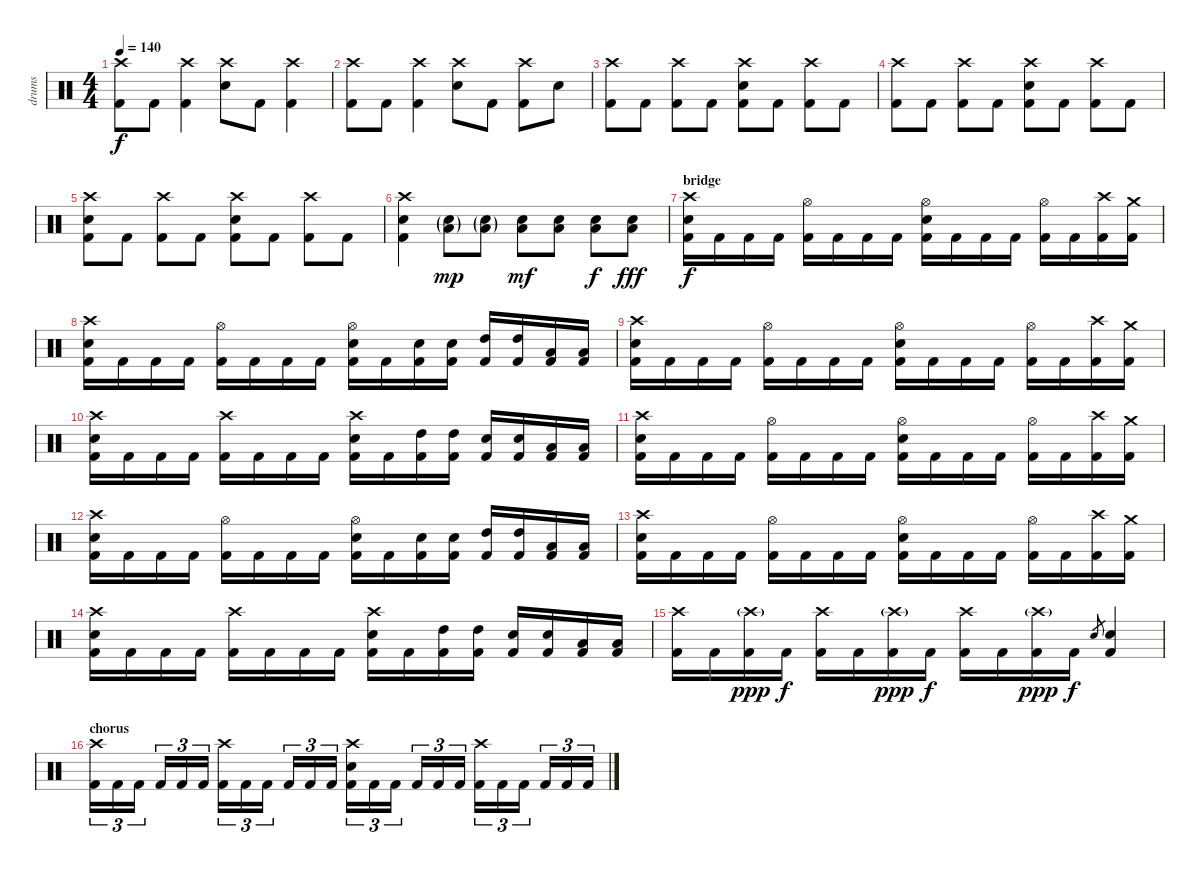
\track ("drums" "drums") {instrument percussion}
\staff {score}
\articulation defaults
\ts (4 4)
\tempo 140
\clef neutral
\ks c
("Crash high (hit)" "Kick (hit) 2").8{dy f} "Kick (hit) 2".8 ("Crash high (hit)" "Kick (hit) 2").4 ("Crash high (hit)" "Electric Snare (hit)").8 "Kick (hit) 2".8 ("Crash high (hit)" "Kick (hit) 2").4 |
("Crash high (hit)" "Kick (hit) 2").8 "Kick (hit) 2".8 ("Crash high (hit)" "Kick (hit) 2").4 ("Crash high (hit)" "Electric Snare (hit)").8 "Kick (hit) 2".8 ("Crash high (hit)" "Kick (hit) 2").8 "Electric Snare (hit)".8 |
("Crash high (hit)" "Kick (hit) 2").8 "Kick (hit) 2".8 ("Crash high (hit)" "Kick (hit) 2").8 "Kick (hit) 2".8 ("Crash high (hit)" "Electric Snare (hit)" "Kick (hit) 2").8 "Kick (hit) 2".8 ("Crash high (hit)" "Kick (hit) 2").8 "Kick (hit) 2".8 |
("Crash high (hit)" "Kick (hit) 2").8 "Kick (hit) 2".8 ("Crash high (hit)" "Kick (hit) 2").8 "Kick (hit) 2".8 ("Crash high (hit)" "Electric Snare (hit)" "Kick (hit) 2").8 "Kick (hit) 2".8 ("Crash high (hit)" "Kick (hit) 2").8 "Kick (hit) 2".8 |
("Crash high (hit)" "Electric Snare (hit)" "Kick (hit) 2").8 "Kick (hit) 2".8 ("Crash high (hit)" "Kick (hit) 2").8 "Kick (hit) 2".8 ("Crash high (hit)" "Electric Snare (hit)" "Kick (hit) 2").8 "Kick (hit) 2".8 ("Crash high (hit)" "Kick (hit) 2").8 "Kick (hit) 2".8 |
("Crash high (hit)" "Electric Snare (hit)" "Kick (hit) 2").4 ("Electric Snare (hit)"{g} "Low Floor Tom (hit)"{g}).8{dy mp} ("Electric Snare (hit)"{g} "Low Floor Tom (hit)"{g}).8 ("Electric Snare (hit)" "Low Floor Tom (hit)").8{dy mf} ("Electric Snare (hit)" "Low Floor Tom (hit)").8 ("Electric Snare (hit)" "Low Floor Tom (hit)").8{dy f} ("Electric Snare (hit)" "Low Floor Tom (hit)").8{dy fff} |
\section ("" "bridge")
("Crash high (hit)" "Electric Snare (hit)" "Kick (hit) 2").16{dy f} "Kick (hit) 2".16 "Kick (hit) 2".16 "Kick (hit) 2".16 ("Hi-Hat (open)" "Kick (hit) 2").16 "Kick (hit) 2".16 "Kick (hit) 2".16 "Kick (hit) 2".16 ("Hi-Hat (open)" "Electric Snare (hit)" "Kick (hit) 2").16 "Kick (hit) 2".16 "Kick (hit) 2".16 "Kick (hit) 2".16 ("Hi-Hat (open)" "Kick (hit) 2").16 "Kick (hit) 2".16 ("Crash high (hit)" "Kick (hit) 2").16 ("Crash medium (hit)" "Kick (hit) 2").16 |
("Crash high (hit)" "Electric Snare (hit)" "Kick (hit) 2").16 "Kick (hit) 2".16 "Kick (hit) 2".16 "Kick (hit) 2".16 ("Hi-Hat (open)" "Kick (hit) 2").16 "Kick (hit) 2".16 "Kick (hit) 2".16 "Kick (hit) 2".16 ("Hi-Hat (open)" "Electric Snare (hit)" "Kick (hit) 2").16 "Kick (hit) 2".16 ("Electric Snare (hit)" "Kick (hit) 2").16 ("Electric Snare (hit)" "Kick (hit) 2").16 ("High Tom (hit)" "Kick (hit) 2").16 ("High Tom (hit)" "Kick (hit) 2").16 ("Low Tom (hit)" "Kick (hit) 2").16 ("Low Tom (hit)" "Kick (hit) 2").16 |
("Crash high (hit)" "Electric Snare (hit)" "Kick (hit) 2").16 "Kick (hit) 2".16 "Kick (hit) 2".16 "Kick (hit) 2".16 ("Hi-Hat (open)" "Kick (hit) 2").16 "Kick (hit) 2".16 "Kick (hit) 2".16 "Kick (hit) 2".16 ("Hi-Hat (open)" "Electric Snare (hit)" "Kick (hit) 2").16 "Kick (hit) 2".16 "Kick (hit) 2".16 "Kick (hit) 2".16 ("Hi-Hat (open)" "Kick (hit) 2").16 "Kick (hit) 2".16 ("Crash high (hit)" "Kick (hit) 2").16 ("Crash medium (hit)" "Kick (hit) 2").16 |
("Crash high (hit)" "Electric Snare (hit)" "Kick (hit) 2").16 "Kick (hit) 2".16 "Kick (hit) 2".16 "Kick (hit) 2".16 ("Crash high (hit)" "Kick (hit) 2").16 "Kick (hit) 2".16 "Kick (hit) 2".16 "Kick (hit) 2".16 ("Crash high (hit)" "Electric Snare (hit)" "Kick (hit) 2").16 "Kick (hit) 2".16 ("High Tom (hit)" "Kick (hit) 2").16 ("High Tom (hit)" "Kick (hit) 2").16 ("Electric Snare (hit)" "Kick (hit) 2").16 ("Electric Snare (hit)" "Kick (hit) 2").16 ("Low Tom (hit)" "Kick (hit) 2").16 ("Low Tom (hit)" "Kick (hit) 2").16 |
("Crash high (hit)" "Electric Snare (hit)" "Kick (hit) 2").16 "Kick (hit) 2".16 "Kick (hit) 2".16 "Kick (hit) 2".16 ("Hi-Hat (open)" "Kick (hit) 2").16 "Kick (hit) 2".16 "Kick (hit) 2".16 "Kick (hit) 2".16 ("Hi-Hat (open)" "Electric Snare (hit)" "Kick (hit) 2").16 "Kick (hit) 2".16 "Kick (hit) 2".16 "Kick (hit) 2".16 ("Hi-Hat (open)" "Kick (hit) 2").16 "Kick (hit) 2".16 ("Crash high (hit)" "Kick (hit) 2").16 ("Crash medium (hit)" "Kick (hit) 2").16 |
("Crash high (hit)" "Electric Snare (hit)" "Kick (hit) 2").16 "Kick (hit) 2".16 "Kick (hit) 2".16 "Kick (hit) 2".16 ("Hi-Hat (open)" "Kick (hit) 2").16 "Kick (hit) 2".16 "Kick (hit) 2".16 "Kick (hit) 2".16 ("Hi-Hat (open)" "Electric Snare (hit)" "Kick (hit) 2").16 "Kick (hit) 2".16 ("Electric Snare (hit)" "Kick (hit) 2").16 ("Electric Snare (hit)" "Kick (hit) 2").16 ("High Tom (hit)" "Kick (hit) 2").16 ("High Tom (hit)" "Kick (hit) 2").16 ("Low Tom (hit)" "Kick (hit) 2").16 ("Low Tom (hit)" "Kick (hit) 2").16 |
("Crash high (hit)" "Electric Snare (hit)" "Kick (hit) 2").16 "Kick (hit) 2".16 "Kick (hit) 2".16 "Kick (hit) 2".16 ("Hi-Hat (open)" "Kick (hit) 2").16 "Kick (hit) 2".16 "Kick (hit) 2".16 "Kick (hit) 2".16 ("Hi-Hat (open)" "Electric Snare (hit)" "Kick (hit) 2").16 "Kick (hit) 2".16 "Kick (hit) 2".16 "Kick (hit) 2".16 ("Hi-Hat (open)" "Kick (hit) 2").16 "Kick (hit) 2".16 ("Crash high (hit)" "Kick (hit) 2").16 ("Crash medium (hit)" "Kick (hit) 2").16 |
("Crash high (hit)" "Electric Snare (hit)" "Kick (hit) 2").16 "Kick (hit) 2".16 "Kick (hit) 2".16 "Kick (hit) 2".16 ("Crash high (hit)" "Kick (hit) 2").16 "Kick (hit) 2".16 "Kick (hit) 2".16 "Kick (hit) 2".16 ("Crash high (hit)" "Electric Snare (hit)" "Kick (hit) 2").16 "Kick (hit) 2".16 ("High Tom (hit)" "Kick (hit) 2").16 ("High Tom (hit)" "Kick (hit) 2").16 ("Electric Snare (hit)" "Kick (hit) 2").16 ("Electric Snare (hit)" "Kick (hit) 2").16 ("Low Tom (hit)" "Kick (hit) 2").16 ("Low Tom (hit)" "Kick (hit) 2").16 |
\section ("" "")
("Crash high (hit)"{pm} "Kick (hit) 2").16 "Kick (hit) 2".16 ("Crash high (hit)"{g} "Kick (hit) 2").16{dy ppp} "Kick (hit) 2".16{dy f} ("Crash high (hit)"{pm} "Kick (hit) 2").16 "Kick (hit) 2".16 ("Crash high (hit)"{g} "Kick (hit) 2").16{dy ppp} "Kick (hit) 2".16{dy f} ("Crash high (hit)"{pm} "Kick (hit) 2").16 "Kick (hit) 2".16 ("Crash high (hit)"{g} "Kick (hit) 2").16{dy ppp} "Kick (hit) 2".16{dy f} "Electric Snare (hit)".8{gr} ("Electric Snare (hit)" "Kick (hit) 2").4 |
\section ("" "chorus")
("Crash high (hit)" "Kick (hit) 2").16{tu (3 2)} "Kick (hit) 2".16{tu (3 2)} "Kick (hit) 2".16{tu (3 2)} "Kick (hit) 2".16{tu (3 2)} "Kick (hit) 2".16{tu (3 2)} "Kick (hit) 2".16{tu (3 2)} ("Crash high (hit)" "Kick (hit) 2").16{tu (3 2)} "Kick (hit) 2".16{tu (3 2)} "Kick (hit) 2".16{tu (3 2)} "Kick (hit) 2".16{tu (3 2)} "Kick (hit) 2".16{tu (3 2)} "Kick (hit) 2".16{tu (3 2)} ("Crash high (hit)" "Electric Snare (hit)" "Kick (hit) 2").16{tu (3 2)} "Kick (hit) 2".16{tu (3 2)} "Kick (hit) 2".16{tu (3 2)} "Kick (hit) 2".16{tu (3 2)} "Kick (hit) 2".16{tu (3 2)} "Kick (hit) 2".16{tu (3 2)} ("Crash high (hit)" "Kick (hit) 2").16{tu (3 2)} "Kick (hit) 2".16{tu (3 2)} "Kick (hit) 2".16{tu (3 2)} "Kick (hit) 2".16{tu (3 2)} "Kick (hit) 2".16{tu (3 2)} "Kick (hit) 2".16{tu (3 2)}
